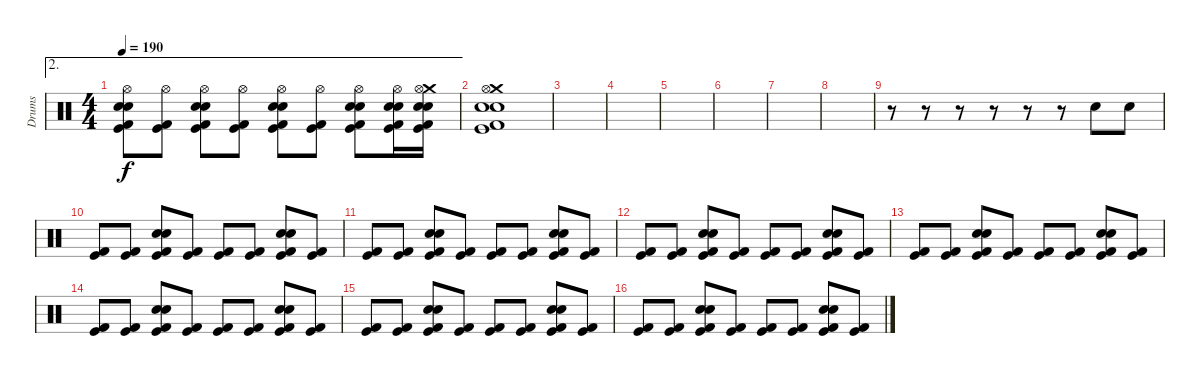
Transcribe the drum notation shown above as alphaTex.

\track ("Drums" "Drums") {instrument percussion}
\staff {score}
\articulation defaults
\ae 2
\ts (4 4)
\tempo 190
\clef neutral
\ks c
("Hi-Hat (open)" "Kick (hit) 2" "Snare (hit) 2" "Electric Snare (hit)" "Kick (hit)").8{dy f} ("Hi-Hat (open)" "Kick (hit) 2" "Kick (hit)").8 ("Snare (hit) 2" "Hi-Hat (open)" "Electric Snare (hit)" "Kick (hit)" "Kick (hit) 2").8 ("Hi-Hat (open)" "Kick (hit) 2" "Kick (hit)").8 ("Snare (hit) 2" "Hi-Hat (open)" "Electric Snare (hit)" "Kick (hit)" "Kick (hit) 2").8 ("Hi-Hat (open)" "Kick (hit) 2" "Kick (hit)").8 ("Snare (hit) 2" "Hi-Hat (open)" "Electric Snare (hit)" "Kick (hit)" "Kick (hit) 2").8 ("Electric Snare (hit)" "Hi-Hat (open)" "Kick (hit) 2" "Kick (hit)" "Snare (hit) 2").16 ("Crash medium (hit)" "Electric Snare (hit)" "Hi-Hat (open)" "Kick (hit) 2" "Kick (hit)" "Snare (hit) 2").16 |
("Crash medium (hit)" "Electric Snare (hit)" "Hi-Hat (open)" "Kick (hit) 2" "Kick (hit)" "Snare (hit) 2").1 |
|
|
|
|
|
|
r.8 r.8 r.8 r.8 r.8 r.8 "Snare (hit) 2".8 "Snare (hit) 2".8 |
("Kick (hit) 2" "Kick (hit)").8 ("Kick (hit) 2" "Kick (hit)").8 ("Snare (hit) 2" "Electric Snare (hit)" "Kick (hit) 2" "Kick (hit)").8 ("Kick (hit) 2" "Kick (hit)").8 ("Kick (hit) 2" "Kick (hit)").8 ("Kick (hit) 2" "Kick (hit)").8 ("Snare (hit) 2" "Electric Snare (hit)" "Kick (hit) 2" "Kick (hit)").8 ("Kick (hit) 2" "Kick (hit)").8 |
("Kick (hit) 2" "Kick (hit)").8 ("Kick (hit) 2" "Kick (hit)").8 ("Snare (hit) 2" "Electric Snare (hit)" "Kick (hit) 2" "Kick (hit)").8 ("Kick (hit) 2" "Kick (hit)").8 ("Kick (hit) 2" "Kick (hit)").8 ("Kick (hit) 2" "Kick (hit)").8 ("Snare (hit) 2" "Electric Snare (hit)" "Kick (hit) 2" "Kick (hit)").8 ("Kick (hit) 2" "Kick (hit)").8 |
("Kick (hit) 2" "Kick (hit)").8 ("Kick (hit) 2" "Kick (hit)").8 ("Snare (hit) 2" "Electric Snare (hit)" "Kick (hit) 2" "Kick (hit)").8 ("Kick (hit) 2" "Kick (hit)").8 ("Kick (hit) 2" "Kick (hit)").8 ("Kick (hit) 2" "Kick (hit)").8 ("Snare (hit) 2" "Electric Snare (hit)" "Kick (hit) 2" "Kick (hit)").8 ("Kick (hit) 2" "Kick (hit)").8 |
("Kick (hit) 2" "Kick (hit)").8 ("Kick (hit) 2" "Kick (hit)").8 ("Snare (hit) 2" "Electric Snare (hit)" "Kick (hit) 2" "Kick (hit)").8 ("Kick (hit) 2" "Kick (hit)").8 ("Kick (hit) 2" "Kick (hit)").8 ("Kick (hit) 2" "Kick (hit)").8 ("Snare (hit) 2" "Electric Snare (hit)" "Kick (hit) 2" "Kick (hit)").8 ("Kick (hit) 2" "Kick (hit)").8 |
("Kick (hit) 2" "Kick (hit)").8 ("Kick (hit) 2" "Kick (hit)").8 ("Snare (hit) 2" "Electric Snare (hit)" "Kick (hit) 2" "Kick (hit)").8 ("Kick (hit) 2" "Kick (hit)").8 ("Kick (hit) 2" "Kick (hit)").8 ("Kick (hit) 2" "Kick (hit)").8 ("Snare (hit) 2" "Electric Snare (hit)" "Kick (hit) 2" "Kick (hit)").8 ("Kick (hit) 2" "Kick (hit)").8 |
("Kick (hit) 2" "Kick (hit)").8 ("Kick (hit) 2" "Kick (hit)").8 ("Snare (hit) 2" "Electric Snare (hit)" "Kick (hit) 2" "Kick (hit)").8 ("Kick (hit) 2" "Kick (hit)").8 ("Kick (hit) 2" "Kick (hit)").8 ("Kick (hit) 2" "Kick (hit)").8 ("Snare (hit) 2" "Electric Snare (hit)" "Kick (hit) 2" "Kick (hit)").8 ("Kick (hit) 2" "Kick (hit)").8 |
("Kick (hit) 2" "Kick (hit)").8 ("Kick (hit) 2" "Kick (hit)").8 ("Snare (hit) 2" "Electric Snare (hit)" "Kick (hit) 2" "Kick (hit)").8 ("Kick (hit) 2" "Kick (hit)").8 ("Kick (hit) 2" "Kick (hit)").8 ("Kick (hit) 2" "Kick (hit)").8 ("Snare (hit) 2" "Electric Snare (hit)" "Kick (hit) 2" "Kick (hit)").8 ("Kick (hit) 2" "Kick (hit)").8
